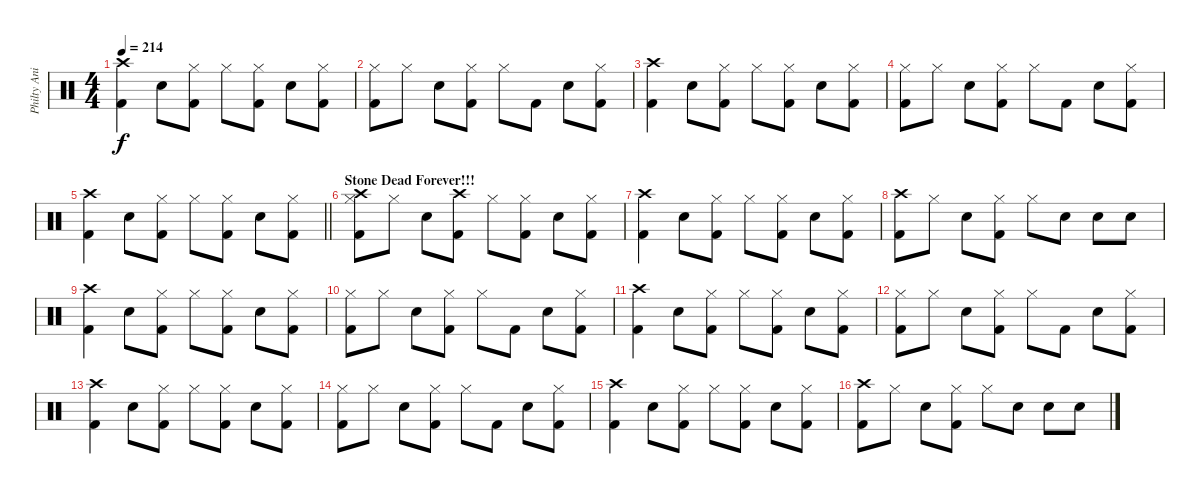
\track ("Philty Animal" "Philty Ani") {instrument percussion}
\staff {score}
\articulation defaults
\ts (4 4)
\tempo 214
\clef neutral
\ks c
("Kick (hit) 2" "Crash high (hit)").4{dy f} "Snare (hit) 2".8 ("Kick (hit) 2" "Hi-Hat (closed)").8 "Hi-Hat (closed)".8 ("Kick (hit) 2" "Hi-Hat (closed)").8 "Snare (hit) 2".8 ("Kick (hit) 2" "Hi-Hat (closed)").8 |
("Kick (hit) 2" "Hi-Hat (closed)").8 "Hi-Hat (closed)".8 "Snare (hit) 2".8 ("Hi-Hat (closed)" "Kick (hit) 2").8 "Hi-Hat (closed)".8 "Kick (hit) 2".8 "Snare (hit) 2".8 ("Kick (hit) 2" "Hi-Hat (closed)").8 |
("Kick (hit) 2" "Crash high (hit)").4 "Snare (hit) 2".8 ("Kick (hit) 2" "Hi-Hat (closed)").8 "Hi-Hat (closed)".8 ("Kick (hit) 2" "Hi-Hat (closed)").8 "Snare (hit) 2".8 ("Kick (hit) 2" "Hi-Hat (closed)").8 |
("Kick (hit) 2" "Hi-Hat (closed)").8 "Hi-Hat (closed)".8 "Snare (hit) 2".8 ("Hi-Hat (closed)" "Kick (hit) 2").8 "Hi-Hat (closed)".8 "Kick (hit) 2".8 "Snare (hit) 2".8 ("Kick (hit) 2" "Hi-Hat (closed)").8 |
\barLineRight lightlight
("Kick (hit) 2" "Crash high (hit)").4 "Snare (hit) 2".8 ("Kick (hit) 2" "Hi-Hat (closed)").8 "Hi-Hat (closed)".8 ("Kick (hit) 2" "Hi-Hat (closed)").8 "Snare (hit) 2".8 ("Kick (hit) 2" "Hi-Hat (closed)").8 |
\section ("" "Stone Dead Forever!!!")
("Crash high (hit)" "Kick (hit) 2" "Hi-Hat (closed)").8 "Hi-Hat (closed)".8 "Snare (hit) 2".8 ("Crash high (hit)" "Kick (hit) 2").8 "Hi-Hat (closed)".8 ("Kick (hit) 2" "Hi-Hat (closed)").8 "Snare (hit) 2".8 ("Kick (hit) 2" "Hi-Hat (closed)").8 |
("Kick (hit) 2" "Crash high (hit)").4 "Snare (hit) 2".8 ("Kick (hit) 2" "Hi-Hat (closed)").8 "Hi-Hat (closed)".8 ("Kick (hit) 2" "Hi-Hat (closed)").8 "Snare (hit) 2".8 ("Kick (hit) 2" "Hi-Hat (closed)").8 |
("Crash high (hit)" "Kick (hit) 2").8 "Hi-Hat (closed)".8 "Snare (hit) 2".8 ("Hi-Hat (closed)" "Kick (hit) 2").8 "Hi-Hat (closed)".8 "Snare (hit) 2".8 "Snare (hit) 2".8 "Snare (hit) 2".8 |
("Kick (hit) 2" "Crash high (hit)").4 "Snare (hit) 2".8 ("Kick (hit) 2" "Hi-Hat (closed)").8 "Hi-Hat (closed)".8 ("Kick (hit) 2" "Hi-Hat (closed)").8 "Snare (hit) 2".8 ("Kick (hit) 2" "Hi-Hat (closed)").8 |
("Kick (hit) 2" "Hi-Hat (closed)").8 "Hi-Hat (closed)".8 "Snare (hit) 2".8 ("Hi-Hat (closed)" "Kick (hit) 2").8 "Hi-Hat (closed)".8 "Kick (hit) 2".8 "Snare (hit) 2".8 ("Kick (hit) 2" "Hi-Hat (closed)").8 |
("Kick (hit) 2" "Crash high (hit)").4 "Snare (hit) 2".8 ("Kick (hit) 2" "Hi-Hat (closed)").8 "Hi-Hat (closed)".8 ("Kick (hit) 2" "Hi-Hat (closed)").8 "Snare (hit) 2".8 ("Kick (hit) 2" "Hi-Hat (closed)").8 |
("Kick (hit) 2" "Hi-Hat (closed)").8 "Hi-Hat (closed)".8 "Snare (hit) 2".8 ("Hi-Hat (closed)" "Kick (hit) 2").8 "Hi-Hat (closed)".8 "Kick (hit) 2".8 "Snare (hit) 2".8 ("Kick (hit) 2" "Hi-Hat (closed)").8 |
("Kick (hit) 2" "Crash high (hit)").4 "Snare (hit) 2".8 ("Kick (hit) 2" "Hi-Hat (closed)").8 "Hi-Hat (closed)".8 ("Kick (hit) 2" "Hi-Hat (closed)").8 "Snare (hit) 2".8 ("Kick (hit) 2" "Hi-Hat (closed)").8 |
("Kick (hit) 2" "Hi-Hat (closed)").8 "Hi-Hat (closed)".8 "Snare (hit) 2".8 ("Hi-Hat (closed)" "Kick (hit) 2").8 "Hi-Hat (closed)".8 "Kick (hit) 2".8 "Snare (hit) 2".8 ("Kick (hit) 2" "Hi-Hat (closed)").8 |
("Kick (hit) 2" "Crash high (hit)").4 "Snare (hit) 2".8 ("Kick (hit) 2" "Hi-Hat (closed)").8 "Hi-Hat (closed)".8 ("Kick (hit) 2" "Hi-Hat (closed)").8 "Snare (hit) 2".8 ("Kick (hit) 2" "Hi-Hat (closed)").8 |
("Crash high (hit)" "Kick (hit) 2").8 "Hi-Hat (closed)".8 "Snare (hit) 2".8 ("Hi-Hat (closed)" "Kick (hit) 2").8 "Hi-Hat (closed)".8 "Snare (hit) 2".8 "Snare (hit) 2".8 "Snare (hit) 2".8
